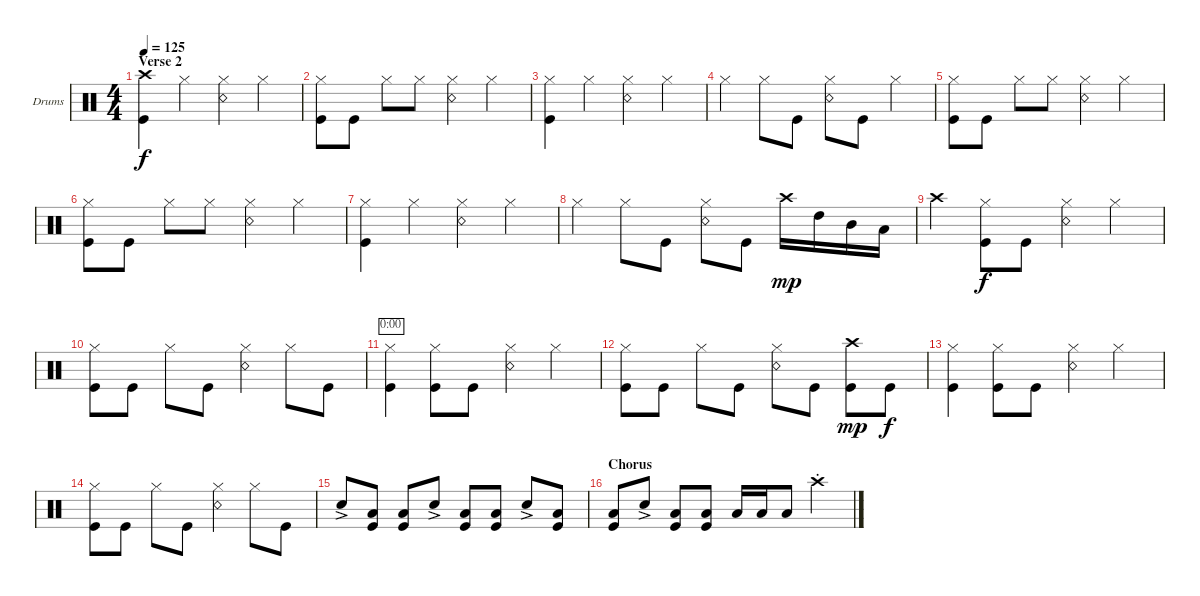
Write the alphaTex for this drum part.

\defaultSystemsLayout 4
\bracketExtendMode groupsimilarinstruments
\firstSystemTrackNameOrientation horizontal
\otherSystemsTrackNameOrientation horizontal
\track ("Drumkit" "Drums") {instrument percussion}
\staff {score}
\articulation defaults
\ts (4 4)
\section ("" "Verse 2")
\tempo 125
\clef neutral
\scale
0.333333
\ks c
("Crash high (hit)" "Kick (hit)").4{dy f} "Hi-Hat (closed)".4 ("Hi-Hat (closed)" "Snare (rim shot)").4 "Hi-Hat (closed)".4 |
\scale
0.333333 ("Kick (hit)" "Hi-Hat (closed)").8 "Kick (hit)".8 "Hi-Hat (closed)".8 "Hi-Hat (closed)".8 ("Hi-Hat (closed)" "Snare (rim shot)").4 "Hi-Hat (closed)".4 |
\scale
0.333333 ("Hi-Hat (closed)" "Kick (hit)").4 "Hi-Hat (closed)".4 ("Hi-Hat (closed)" "Snare (rim shot)").4 "Hi-Hat (closed)".4 |
\scale
0.333333 "Hi-Hat (closed)".4 "Hi-Hat (closed)".8 "Kick (hit)".8 ("Snare (rim shot)" "Hi-Hat (closed)").8 "Kick (hit)".8 "Hi-Hat (closed)".4 |
\scale
0.333333 ("Kick (hit)" "Hi-Hat (closed)").8 "Kick (hit)".8 "Hi-Hat (closed)".8 "Hi-Hat (closed)".8 ("Hi-Hat (closed)" "Snare (rim shot)").4 "Hi-Hat (closed)".4 |
\scale
0.333333 ("Kick (hit)" "Hi-Hat (closed)").8 "Kick (hit)".8 "Hi-Hat (closed)".8 "Hi-Hat (closed)".8 ("Hi-Hat (closed)" "Snare (rim shot)").4 "Hi-Hat (closed)".4 |
\scale
0.333333 ("Hi-Hat (closed)" "Kick (hit)").4 "Hi-Hat (closed)".4 ("Hi-Hat (closed)" "Snare (rim shot)").4 "Hi-Hat (closed)".4 |
\scale
0.333333 "Hi-Hat (closed)".4 "Hi-Hat (closed)".8 "Kick (hit)".8 ("Snare (rim shot)" "Hi-Hat (closed)").8 "Kick (hit)".8 "Crash high (hit)".16{dy mp} "High Tom (hit)".16 "Mid Tom (hit)".16 "Low Tom (hit)".16 |
\scale
0.333333 "Crash high (hit)".4 ("Kick (hit)" "Hi-Hat (closed)").8{dy f} "Kick (hit)".8 ("Hi-Hat (closed)" "Snare (rim shot)").4 "Hi-Hat (closed)".4 |
\scale
0.333333 ("Kick (hit)" "Hi-Hat (closed)").8 "Kick (hit)".8 "Hi-Hat (closed)".8 "Kick (hit)".8 ("Snare (rim shot)" "Hi-Hat (closed)").4 "Hi-Hat (closed)".8 "Kick (hit)".8 |
\scale
0.333333 ("Kick (hit)" "Hi-Hat (closed)").4{timer} ("Kick (hit)" "Hi-Hat (closed)").8 "Kick (hit)".8 ("Hi-Hat (closed)" "Snare (rim shot)").4 "Hi-Hat (closed)".4 |
\scale
0.333333 ("Kick (hit)" "Hi-Hat (closed)").8 "Kick (hit)".8 "Hi-Hat (closed)".8 "Kick (hit)".8 ("Snare (rim shot)" "Hi-Hat (closed)").8 "Kick (hit)".8 ("Kick (hit)" "Crash high (hit)").8{dy mp} "Kick (hit)".8{dy f} |
\scale
0.333333 ("Kick (hit)" "Hi-Hat (closed)").4 ("Kick (hit)" "Hi-Hat (closed)").8 "Kick (hit)".8 ("Hi-Hat (closed)" "Snare (rim shot)").4 "Hi-Hat (closed)".4 |
\scale
0.333333 ("Kick (hit)" "Hi-Hat (closed)").8 "Kick (hit)".8 "Hi-Hat (closed)".8 "Kick (hit)".8 ("Snare (rim shot)" "Hi-Hat (closed)").4 "Hi-Hat (closed)".8 "Kick (hit)".8 |
\scale
0.333333 "Snare (hit) 2"{ac}.8 ("Kick (hit)" "Low Tom (hit)").8 ("Kick (hit)" "Low Tom (hit)").8 "Snare (hit) 2"{ac}.8 ("Kick (hit)" "Low Tom (hit)").8 ("Kick (hit)" "Low Tom (hit)").8 "Snare (hit) 2"{ac}.8 ("Kick (hit)" "Low Tom (hit)").8 |
\section ("" "Chorus")
\scale
0.333333 ("Kick (hit)" "Low Tom (hit)").8 "Snare (hit) 2"{ac}.8 ("Kick (hit)" "Low Tom (hit)").8 ("Low Tom (hit)" "Kick (hit)").8 "Low Tom (hit)".16 "Low Tom (hit)".16 "Low Tom (hit)".8 "Crash high (hit)"{st}.4
